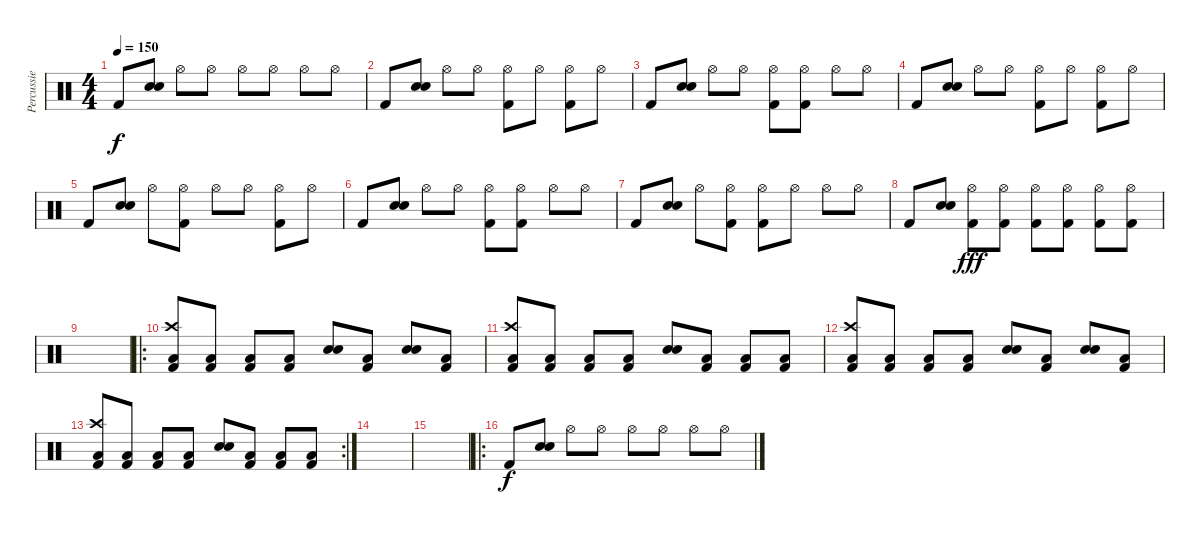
\track ("Percussie" "Percussie") {instrument percussion}
\staff {score}
\articulation defaults
\ts (4 4)
\tempo 150
\clef neutral
\ks c "Kick (hit) 2".8{dy f}
("Snare (hit) 2" "Snare (hit) 2").8{bd 480} "Hi-Hat (open)".8 "Hi-Hat (open)".8 "Hi-Hat (open)".8 "Hi-Hat (open)".8 "Hi-Hat (open)".8 "Hi-Hat (open)".8 |
"Kick (hit) 2".8 ("Snare (hit) 2" "Snare (hit) 2").8{bd 480} "Hi-Hat (open)".8 "Hi-Hat (open)".8 ("Hi-Hat (open)" "Kick (hit) 2").8 "Hi-Hat (open)".8 ("Hi-Hat (open)" "Kick (hit) 2").8 "Hi-Hat (open)".8 |
"Kick (hit) 2".8 ("Snare (hit) 2" "Snare (hit) 2").8{bd 480} "Hi-Hat (open)".8 "Hi-Hat (open)".8 ("Hi-Hat (open)" "Kick (hit) 2").8 ("Hi-Hat (open)" "Kick (hit) 2").8 "Hi-Hat (open)".8 "Hi-Hat (open)".8 |
"Kick (hit) 2".8 ("Snare (hit) 2" "Snare (hit) 2").8{bd 480} "Hi-Hat (open)".8 "Hi-Hat (open)".8 ("Hi-Hat (open)" "Kick (hit) 2").8 "Hi-Hat (open)".8 ("Hi-Hat (open)" "Kick (hit) 2").8 "Hi-Hat (open)".8 |
"Kick (hit) 2".8 ("Snare (hit) 2" "Snare (hit) 2").8{bd 480} "Hi-Hat (open)".8 ("Hi-Hat (open)" "Kick (hit) 2").8 "Hi-Hat (open)".8 "Hi-Hat (open)".8 ("Hi-Hat (open)" "Kick (hit) 2").8 "Hi-Hat (open)".8 |
"Kick (hit) 2".8 ("Snare (hit) 2" "Snare (hit) 2").8{bd 480} "Hi-Hat (open)".8 "Hi-Hat (open)".8 ("Hi-Hat (open)" "Kick (hit) 2").8 ("Hi-Hat (open)" "Kick (hit) 2").8 "Hi-Hat (open)".8 "Hi-Hat (open)".8 |
"Kick (hit) 2".8 ("Snare (hit) 2" "Snare (hit) 2").8{bd 480} "Hi-Hat (open)".8 ("Hi-Hat (open)" "Kick (hit) 2").8 ("Hi-Hat (open)" "Kick (hit) 2").8 "Hi-Hat (open)".8 "Hi-Hat (open)".8 "Hi-Hat (open)".8 |
"Kick (hit) 2".8 ("Snare (hit) 2" "Snare (hit) 2").8{bd 480} ("Hi-Hat (open)" "Kick (hit) 2").8{dy fff} ("Hi-Hat (open)" "Kick (hit) 2").8 ("Hi-Hat (open)" "Kick (hit) 2").8 ("Hi-Hat (open)" "Kick (hit) 2").8 ("Hi-Hat (open)" "Kick (hit) 2").8 ("Hi-Hat (open)" "Kick (hit) 2").8 |
|
\ro
("Crash high (hit)" "Low Floor Tom (hit)" "Kick (hit) 2").8 ("Low Floor Tom (hit)" "Kick (hit) 2").8 ("Low Floor Tom (hit)" "Kick (hit) 2").8 ("Low Floor Tom (hit)" "Kick (hit) 2").8 ("Snare (hit) 2" "Snare (hit) 2").8{bd 480} ("Low Floor Tom (hit)" "Kick (hit) 2").8 ("Snare (hit) 2" "Snare (hit) 2").8 ("Low Floor Tom (hit)" "Kick (hit) 2").8 |
("Crash high (hit)" "Low Floor Tom (hit)" "Kick (hit) 2").8 ("Low Floor Tom (hit)" "Kick (hit) 2").8 ("Low Floor Tom (hit)" "Kick (hit) 2").8 ("Low Floor Tom (hit)" "Kick (hit) 2").8 ("Snare (hit) 2" "Snare (hit) 2").8{bd 480} ("Low Floor Tom (hit)" "Kick (hit) 2").8 ("Low Floor Tom (hit)" "Kick (hit) 2").8 ("Low Floor Tom (hit)" "Kick (hit) 2").8 |
("Crash high (hit)" "Low Floor Tom (hit)" "Kick (hit) 2").8 ("Low Floor Tom (hit)" "Kick (hit) 2").8 ("Low Floor Tom (hit)" "Kick (hit) 2").8 ("Low Floor Tom (hit)" "Kick (hit) 2").8 ("Snare (hit) 2" "Snare (hit) 2").8{bd 480} ("Low Floor Tom (hit)" "Kick (hit) 2").8 ("Snare (hit) 2" "Snare (hit) 2").8 ("Low Floor Tom (hit)" "Kick (hit) 2").8 |
\rc 2
("Crash high (hit)" "Low Floor Tom (hit)" "Kick (hit) 2").8 ("Low Floor Tom (hit)" "Kick (hit) 2").8 ("Low Floor Tom (hit)" "Kick (hit) 2").8 ("Low Floor Tom (hit)" "Kick (hit) 2").8 ("Snare (hit) 2" "Snare (hit) 2").8{bd 480} ("Low Floor Tom (hit)" "Kick (hit) 2").8 ("Low Floor Tom (hit)" "Kick (hit) 2").8 ("Low Floor Tom (hit)" "Kick (hit) 2").8 |
|
|
\ro "Kick (hit) 2".8{dy f}
("Snare (hit) 2" "Snare (hit) 2").8{bd 480} "Hi-Hat (open)".8 "Hi-Hat (open)".8 "Hi-Hat (open)".8 "Hi-Hat (open)".8 "Hi-Hat (open)".8 "Hi-Hat (open)".8
